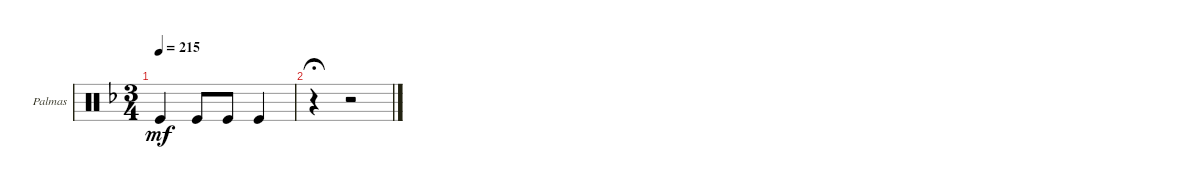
\defaultSystemsLayout 4
\bracketExtendMode groupsimilarinstruments
\firstSystemTrackNameOrientation horizontal
\otherSystemsTrackNameOrientation horizontal
\track ("Palmas" "Palmas") {instrument percussion}
\staff {score}
\articulation defaults
\ts (3 4)
\tempo 215
\clef neutral
\ks f "Kick (hit)".4{dy mf} "Kick (hit)".8 "Kick (hit)".8 "Kick (hit)".4
|
r.4{fermata (medium 1)} r.2
